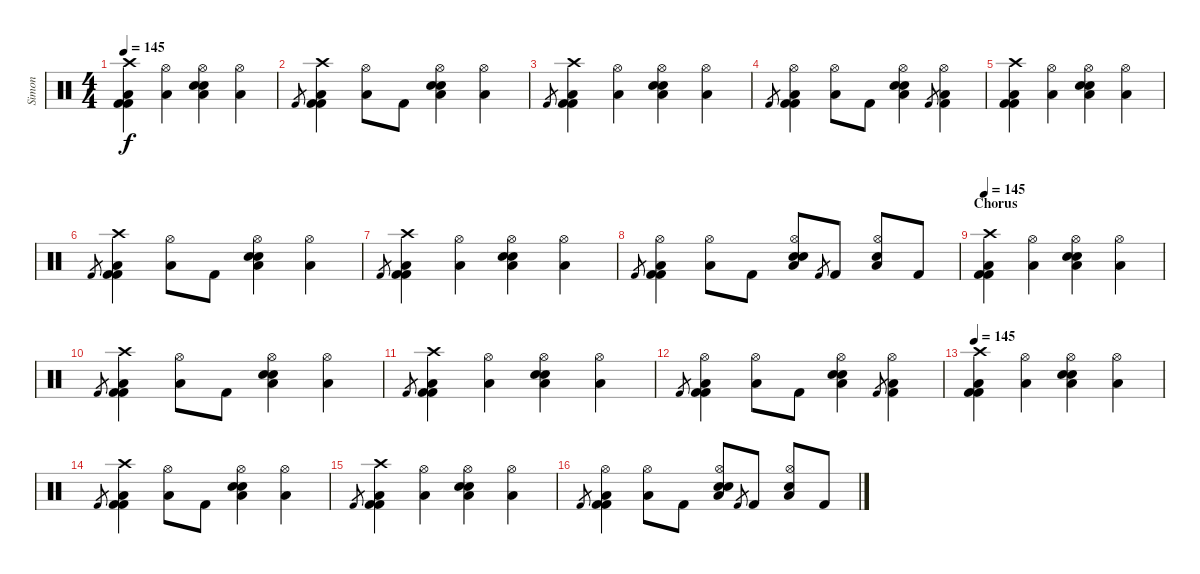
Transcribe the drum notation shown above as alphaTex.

\track ("Simon" "Simon") {instrument percussion}
\staff {score}
\articulation defaults
\ts (4 4)
\tempo 145
\clef neutral
\ks c
("Crash high (hit)" "Kick (hit) 2" "Kick (hit) 2" "Low Tom (hit)").4{dy f} ("Hi-Hat (open)" "Low Tom (hit)").4 ("Hi-Hat (open)" "Electric Snare (hit)" "Electric Snare (hit)" "Low Tom (hit)").4 ("Hi-Hat (open)" "Low Tom (hit)").4 |
"Kick (hit) 2".8{gr} ("Crash high (hit)" "Kick (hit) 2" "Kick (hit) 2" "Low Tom (hit)").4 ("Hi-Hat (open)" "Low Tom (hit)").8 "Kick (hit) 2".8 ("Hi-Hat (open)" "Electric Snare (hit)" "Electric Snare (hit)" "Low Tom (hit)").4 ("Hi-Hat (open)" "Low Tom (hit)").4 |
"Kick (hit) 2".8{gr} ("Crash high (hit)" "Kick (hit) 2" "Kick (hit) 2" "Low Tom (hit)").4 ("Hi-Hat (open)" "Low Tom (hit)").4 ("Hi-Hat (open)" "Electric Snare (hit)" "Electric Snare (hit)" "Low Tom (hit)").4 ("Hi-Hat (open)" "Low Tom (hit)").4 |
"Kick (hit) 2".8{gr} ("Hi-Hat (open)" "Kick (hit) 2" "Kick (hit) 2" "Low Tom (hit)").4 ("Hi-Hat (open)" "Low Tom (hit)").8 "Kick (hit) 2".8 ("Hi-Hat (open)" "Electric Snare (hit)" "Electric Snare (hit)" "Low Tom (hit)").4 "Kick (hit) 2".8{gr} ("Hi-Hat (open)" "Kick (hit) 2" "Low Tom (hit)").4 |
("Crash high (hit)" "Kick (hit) 2" "Kick (hit) 2" "Low Tom (hit)").4 ("Hi-Hat (open)" "Low Tom (hit)").4 ("Hi-Hat (open)" "Electric Snare (hit)" "Electric Snare (hit)" "Low Tom (hit)").4 ("Hi-Hat (open)" "Low Tom (hit)").4 |
"Kick (hit) 2".8{gr} ("Crash high (hit)" "Kick (hit) 2" "Kick (hit) 2" "Low Tom (hit)").4 ("Hi-Hat (open)" "Low Tom (hit)").8 "Kick (hit) 2".8 ("Hi-Hat (open)" "Electric Snare (hit)" "Electric Snare (hit)" "Low Tom (hit)").4 ("Hi-Hat (open)" "Low Tom (hit)").4 |
"Kick (hit) 2".8{gr} ("Crash high (hit)" "Kick (hit) 2" "Kick (hit) 2" "Low Tom (hit)").4 ("Hi-Hat (open)" "Low Tom (hit)").4 ("Hi-Hat (open)" "Electric Snare (hit)" "Electric Snare (hit)" "Low Tom (hit)").4 ("Hi-Hat (open)" "Low Tom (hit)").4 |
"Kick (hit) 2".8{gr} ("Hi-Hat (open)" "Kick (hit) 2" "Kick (hit) 2" "Low Tom (hit)").4 ("Hi-Hat (open)" "Low Tom (hit)").8 "Kick (hit) 2".8 ("Hi-Hat (open)" "Electric Snare (hit)" "Electric Snare (hit)" "Low Tom (hit)").8 "Kick (hit) 2".8{gr} "Kick (hit) 2".8 ("Hi-Hat (open)" "Electric Snare (hit)" "Low Tom (hit)").8 "Kick (hit) 2".8 |
\section ("" "Chorus")
\tempo 145
("Crash high (hit)" "Kick (hit) 2" "Kick (hit) 2" "Low Tom (hit)").4 ("Hi-Hat (open)" "Low Tom (hit)").4 ("Hi-Hat (open)" "Electric Snare (hit)" "Electric Snare (hit)" "Low Tom (hit)").4 ("Hi-Hat (open)" "Low Tom (hit)").4 |
"Kick (hit) 2".8{gr} ("Crash high (hit)" "Kick (hit) 2" "Kick (hit) 2" "Low Tom (hit)").4 ("Hi-Hat (open)" "Low Tom (hit)").8 "Kick (hit) 2".8 ("Hi-Hat (open)" "Electric Snare (hit)" "Electric Snare (hit)" "Low Tom (hit)").4 ("Hi-Hat (open)" "Low Tom (hit)").4 |
"Kick (hit) 2".8{gr} ("Crash high (hit)" "Kick (hit) 2" "Kick (hit) 2" "Low Tom (hit)").4 ("Hi-Hat (open)" "Low Tom (hit)").4 ("Hi-Hat (open)" "Electric Snare (hit)" "Electric Snare (hit)" "Low Tom (hit)").4 ("Hi-Hat (open)" "Low Tom (hit)").4 |
"Kick (hit) 2".8{gr} ("Hi-Hat (open)" "Kick (hit) 2" "Kick (hit) 2" "Low Tom (hit)").4 ("Hi-Hat (open)" "Low Tom (hit)").8 "Kick (hit) 2".8 ("Hi-Hat (open)" "Electric Snare (hit)" "Electric Snare (hit)" "Low Tom (hit)").4 "Kick (hit) 2".8{gr} ("Hi-Hat (open)" "Kick (hit) 2" "Low Tom (hit)").4 |
\tempo 145
("Crash high (hit)" "Kick (hit) 2" "Kick (hit) 2" "Low Tom (hit)").4 ("Hi-Hat (open)" "Low Tom (hit)").4 ("Hi-Hat (open)" "Electric Snare (hit)" "Electric Snare (hit)" "Low Tom (hit)").4 ("Hi-Hat (open)" "Low Tom (hit)").4 |
"Kick (hit) 2".8{gr} ("Crash high (hit)" "Kick (hit) 2" "Kick (hit) 2" "Low Tom (hit)").4 ("Hi-Hat (open)" "Low Tom (hit)").8 "Kick (hit) 2".8 ("Hi-Hat (open)" "Electric Snare (hit)" "Electric Snare (hit)" "Low Tom (hit)").4 ("Hi-Hat (open)" "Low Tom (hit)").4 |
"Kick (hit) 2".8{gr} ("Crash high (hit)" "Kick (hit) 2" "Kick (hit) 2" "Low Tom (hit)").4 ("Hi-Hat (open)" "Low Tom (hit)").4 ("Hi-Hat (open)" "Electric Snare (hit)" "Electric Snare (hit)" "Low Tom (hit)").4 ("Hi-Hat (open)" "Low Tom (hit)").4 |
"Kick (hit) 2".8{gr} ("Hi-Hat (open)" "Kick (hit) 2" "Kick (hit) 2" "Low Tom (hit)").4 ("Hi-Hat (open)" "Low Tom (hit)").8 "Kick (hit) 2".8 ("Hi-Hat (open)" "Electric Snare (hit)" "Electric Snare (hit)" "Low Tom (hit)").8 "Kick (hit) 2".8{gr} "Kick (hit) 2".8 ("Hi-Hat (open)" "Electric Snare (hit)" "Low Tom (hit)").8 "Kick (hit) 2".8
